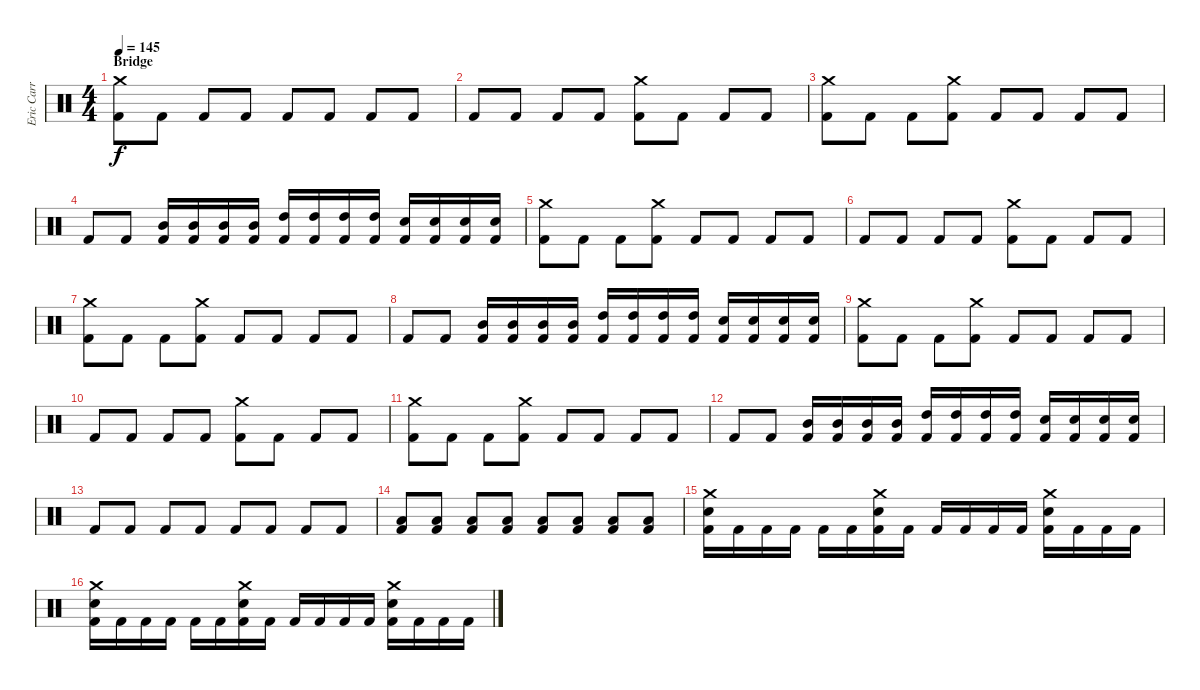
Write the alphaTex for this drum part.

\track ("Eric Carr" "Eric Carr") {instrument percussion}
\staff {score}
\articulation defaults
\ts (4 4)
\section ("" "Bridge")
\tempo 145
\clef neutral
\ks c
("Crash medium (hit)" "Kick (hit) 2").8{dy f} "Kick (hit) 2".8 "Kick (hit) 2".8 "Kick (hit) 2".8 "Kick (hit) 2".8 "Kick (hit) 2".8 "Kick (hit) 2".8 "Kick (hit) 2".8 |
"Kick (hit) 2".8 "Kick (hit) 2".8 "Kick (hit) 2".8 "Kick (hit) 2".8 ("Crash medium (hit)" "Kick (hit) 2").8 "Kick (hit) 2".8 "Kick (hit) 2".8 "Kick (hit) 2".8 |
("Crash medium (hit)" "Kick (hit) 2").8 "Kick (hit) 2".8 "Kick (hit) 2".8 ("Crash medium (hit)" "Kick (hit) 2").8 "Kick (hit) 2".8 "Kick (hit) 2".8 "Kick (hit) 2".8 "Kick (hit) 2".8 |
"Kick (hit) 2".8 "Kick (hit) 2".8 ("Mid Tom (hit)" "Kick (hit) 2").16 ("Mid Tom (hit)" "Kick (hit) 2").16 ("Mid Tom (hit)" "Kick (hit) 2").16 ("Mid Tom (hit)" "Kick (hit) 2").16 ("High Tom (hit)" "Kick (hit) 2").16 ("High Tom (hit)" "Kick (hit) 2").16 ("High Tom (hit)" "Kick (hit) 2").16 ("High Tom (hit)" "Kick (hit) 2").16 ("Snare (hit) 2" "Kick (hit) 2").16 ("Snare (hit) 2" "Kick (hit) 2").16 ("Snare (hit) 2" "Kick (hit) 2").16 ("Snare (hit) 2" "Kick (hit) 2").16 |
("Crash medium (hit)" "Kick (hit) 2").8 "Kick (hit) 2".8 "Kick (hit) 2".8 ("Crash medium (hit)" "Kick (hit) 2").8 "Kick (hit) 2".8 "Kick (hit) 2".8 "Kick (hit) 2".8 "Kick (hit) 2".8 |
"Kick (hit) 2".8 "Kick (hit) 2".8 "Kick (hit) 2".8 "Kick (hit) 2".8 ("Crash medium (hit)" "Kick (hit) 2").8 "Kick (hit) 2".8 "Kick (hit) 2".8 "Kick (hit) 2".8 |
("Crash medium (hit)" "Kick (hit) 2").8 "Kick (hit) 2".8 "Kick (hit) 2".8 ("Crash medium (hit)" "Kick (hit) 2").8 "Kick (hit) 2".8 "Kick (hit) 2".8 "Kick (hit) 2".8 "Kick (hit) 2".8 |
"Kick (hit) 2".8 "Kick (hit) 2".8 ("Mid Tom (hit)" "Kick (hit) 2").16 ("Mid Tom (hit)" "Kick (hit) 2").16 ("Mid Tom (hit)" "Kick (hit) 2").16 ("Mid Tom (hit)" "Kick (hit) 2").16 ("High Tom (hit)" "Kick (hit) 2").16 ("High Tom (hit)" "Kick (hit) 2").16 ("High Tom (hit)" "Kick (hit) 2").16 ("High Tom (hit)" "Kick (hit) 2").16 ("Snare (hit) 2" "Kick (hit) 2").16 ("Snare (hit) 2" "Kick (hit) 2").16 ("Snare (hit) 2" "Kick (hit) 2").16 ("Snare (hit) 2" "Kick (hit) 2").16 |
("Crash medium (hit)" "Kick (hit) 2").8 "Kick (hit) 2".8 "Kick (hit) 2".8 ("Crash medium (hit)" "Kick (hit) 2").8 "Kick (hit) 2".8 "Kick (hit) 2".8 "Kick (hit) 2".8 "Kick (hit) 2".8 |
"Kick (hit) 2".8 "Kick (hit) 2".8 "Kick (hit) 2".8 "Kick (hit) 2".8 ("Crash medium (hit)" "Kick (hit) 2").8 "Kick (hit) 2".8 "Kick (hit) 2".8 "Kick (hit) 2".8 |
("Crash medium (hit)" "Kick (hit) 2").8 "Kick (hit) 2".8 "Kick (hit) 2".8 ("Crash medium (hit)" "Kick (hit) 2").8 "Kick (hit) 2".8 "Kick (hit) 2".8 "Kick (hit) 2".8 "Kick (hit) 2".8 |
"Kick (hit) 2".8 "Kick (hit) 2".8 ("Mid Tom (hit)" "Kick (hit) 2").16 ("Mid Tom (hit)" "Kick (hit) 2").16 ("Mid Tom (hit)" "Kick (hit) 2").16 ("Mid Tom (hit)" "Kick (hit) 2").16 ("High Tom (hit)" "Kick (hit) 2").16 ("High Tom (hit)" "Kick (hit) 2").16 ("High Tom (hit)" "Kick (hit) 2").16 ("High Tom (hit)" "Kick (hit) 2").16 ("Snare (hit) 2" "Kick (hit) 2").16 ("Snare (hit) 2" "Kick (hit) 2").16 ("Snare (hit) 2" "Kick (hit) 2").16 ("Snare (hit) 2" "Kick (hit) 2").16 |
"Kick (hit) 2".8 "Kick (hit) 2".8 "Kick (hit) 2".8 "Kick (hit) 2".8 "Kick (hit) 2".8 "Kick (hit) 2".8 "Kick (hit) 2".8 "Kick (hit) 2".8 |
("Low Tom (hit)" "Kick (hit) 2").8 ("Low Tom (hit)" "Kick (hit) 2").8 ("Low Tom (hit)" "Kick (hit) 2").8 ("Low Tom (hit)" "Kick (hit) 2").8 ("Low Tom (hit)" "Kick (hit) 2").8 ("Low Tom (hit)" "Kick (hit) 2").8 ("Low Tom (hit)" "Kick (hit) 2").8 ("Low Tom (hit)" "Kick (hit) 2").8 |
("Snare (hit) 2" "Crash medium (hit)" "Kick (hit) 2").16 "Kick (hit) 2".16 "Kick (hit) 2".16 "Kick (hit) 2".16 "Kick (hit) 2".16 "Kick (hit) 2".16 ("Snare (hit) 2" "Crash medium (hit)" "Kick (hit) 2").16 "Kick (hit) 2".16 "Kick (hit) 2".16 "Kick (hit) 2".16 "Kick (hit) 2".16 "Kick (hit) 2".16 ("Snare (hit) 2" "Crash medium (hit)" "Kick (hit) 2").16 "Kick (hit) 2".16 "Kick (hit) 2".16 "Kick (hit) 2".16 |
("Snare (hit) 2" "Crash medium (hit)" "Kick (hit) 2").16 "Kick (hit) 2".16 "Kick (hit) 2".16 "Kick (hit) 2".16 "Kick (hit) 2".16 "Kick (hit) 2".16 ("Snare (hit) 2" "Crash medium (hit)" "Kick (hit) 2").16 "Kick (hit) 2".16 "Kick (hit) 2".16 "Kick (hit) 2".16 "Kick (hit) 2".16 "Kick (hit) 2".16 ("Snare (hit) 2" "Crash medium (hit)" "Kick (hit) 2").16 "Kick (hit) 2".16 "Kick (hit) 2".16 "Kick (hit) 2".16
